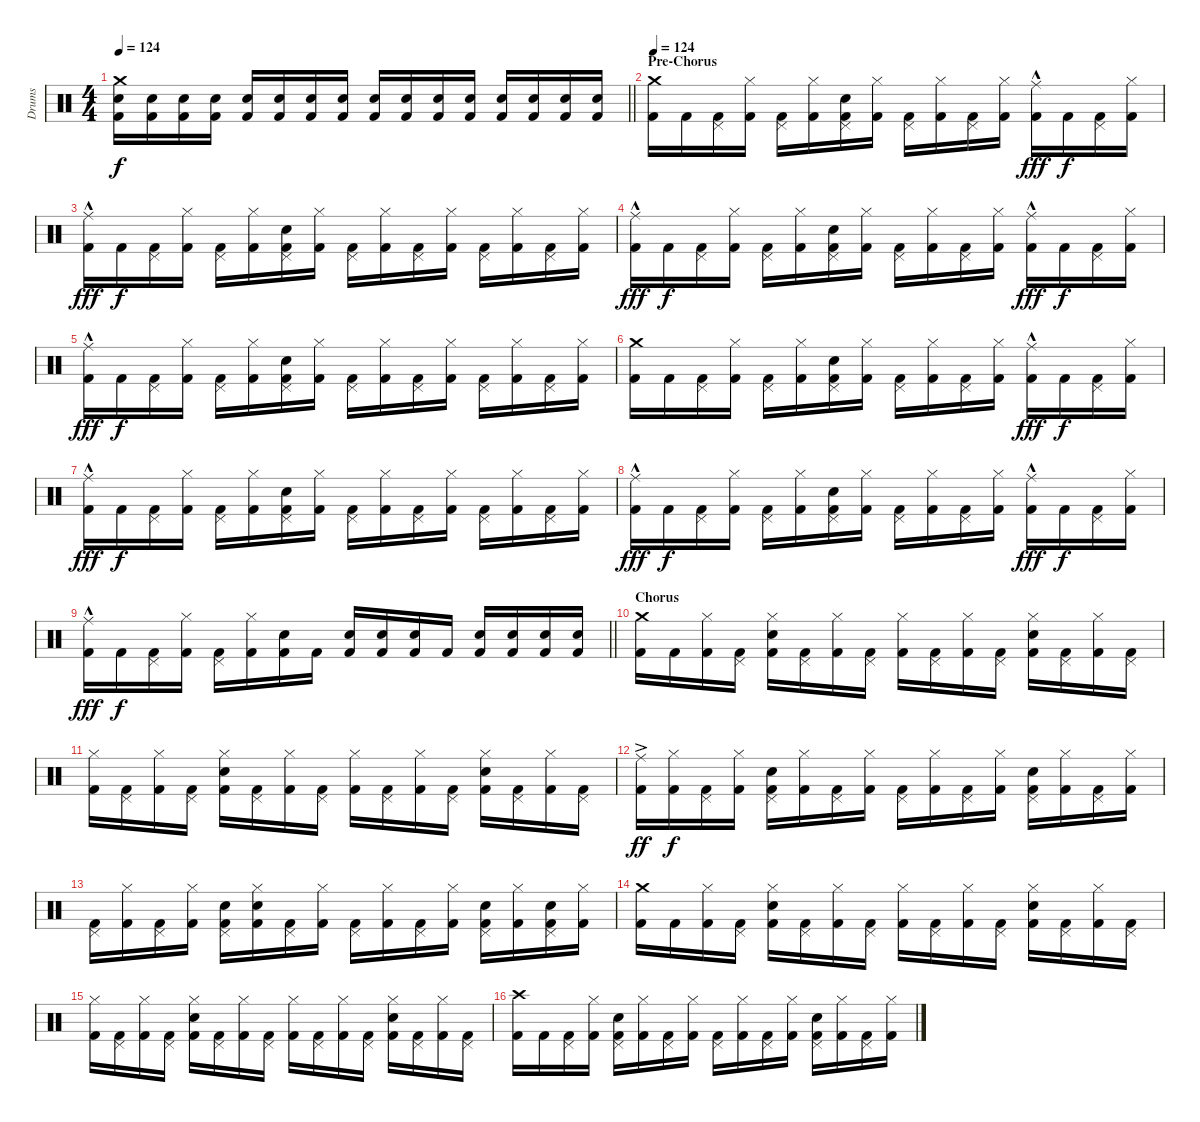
\track ("Drums" "Drums") {instrument percussion}
\staff {score}
\articulation defaults
\ts (4 4)
\tempo 124
\clef neutral
\barLineRight lightlight
\ks c
("Kick (hit) 2" "Snare (hit) 2" "Crash medium (hit)").16{dy f} ("Kick (hit) 2" "Snare (hit) 2").16 ("Kick (hit) 2" "Snare (hit) 2").16 ("Kick (hit) 2" "Snare (hit) 2").16 ("Kick (hit) 2" "Snare (hit) 2").16 ("Kick (hit) 2" "Snare (hit) 2").16 ("Kick (hit) 2" "Snare (hit) 2").16 ("Kick (hit) 2" "Snare (hit) 2").16 ("Kick (hit) 2" "Snare (hit) 2").16 ("Kick (hit) 2" "Snare (hit) 2").16 ("Kick (hit) 2" "Snare (hit) 2").16 ("Kick (hit) 2" "Snare (hit) 2").16 ("Kick (hit) 2" "Snare (hit) 2").16 ("Kick (hit) 2" "Snare (hit) 2").16 ("Kick (hit) 2" "Snare (hit) 2").16 ("Kick (hit) 2" "Snare (hit) 2").16 |
\section ("" "Pre-Chorus")
\tempo 124
("Kick (hit) 2" "Crash medium (hit)").16 "Kick (hit) 2".16 ("Kick (hit) 2" "Pedal Hi-Hat (hit)").16 ("Kick (hit) 2" "Hi-Hat (closed)").16 ("Kick (hit) 2" "Pedal Hi-Hat (hit)").16 ("Kick (hit) 2" "Hi-Hat (closed)").16 ("Kick (hit) 2" "Snare (hit) 2" "Pedal Hi-Hat (hit)").16 ("Kick (hit) 2" "Hi-Hat (closed)").16 ("Kick (hit) 2" "Pedal Hi-Hat (hit)").16 ("Kick (hit) 2" "Hi-Hat (closed)").16 ("Kick (hit) 2" "Pedal Hi-Hat (hit)").16 ("Kick (hit) 2" "Hi-Hat (closed)").16 ("Kick (hit) 2" "Ride (middle)"{hac}).16{dy fff} "Kick (hit) 2".16{dy f} ("Kick (hit) 2" "Pedal Hi-Hat (hit)").16 ("Kick (hit) 2" "Hi-Hat (closed)").16 |
("Kick (hit) 2" "Ride (middle)"{hac}).16{dy fff} "Kick (hit) 2".16{dy f} ("Kick (hit) 2" "Pedal Hi-Hat (hit)").16 ("Kick (hit) 2" "Hi-Hat (closed)").16 ("Kick (hit) 2" "Pedal Hi-Hat (hit)").16 ("Kick (hit) 2" "Hi-Hat (closed)").16 ("Kick (hit) 2" "Snare (hit) 2" "Pedal Hi-Hat (hit)").16 ("Kick (hit) 2" "Hi-Hat (closed)").16 ("Kick (hit) 2" "Pedal Hi-Hat (hit)").16 ("Kick (hit) 2" "Hi-Hat (closed)").16 ("Kick (hit) 2" "Pedal Hi-Hat (hit)").16 ("Kick (hit) 2" "Hi-Hat (closed)").16 ("Kick (hit) 2" "Pedal Hi-Hat (hit)").16 ("Kick (hit) 2" "Hi-Hat (closed)").16 ("Kick (hit) 2" "Pedal Hi-Hat (hit)").16 ("Kick (hit) 2" "Hi-Hat (closed)").16 |
("Kick (hit) 2" "Ride (middle)"{hac}).16{dy fff} "Kick (hit) 2".16{dy f} ("Kick (hit) 2" "Pedal Hi-Hat (hit)").16 ("Kick (hit) 2" "Hi-Hat (closed)").16 ("Kick (hit) 2" "Pedal Hi-Hat (hit)").16 ("Kick (hit) 2" "Hi-Hat (closed)").16 ("Kick (hit) 2" "Snare (hit) 2" "Pedal Hi-Hat (hit)").16 ("Kick (hit) 2" "Hi-Hat (closed)").16 ("Kick (hit) 2" "Pedal Hi-Hat (hit)").16 ("Kick (hit) 2" "Hi-Hat (closed)").16 ("Kick (hit) 2" "Pedal Hi-Hat (hit)").16 ("Kick (hit) 2" "Hi-Hat (closed)").16 ("Kick (hit) 2" "Ride (middle)"{hac}).16{dy fff} "Kick (hit) 2".16{dy f} ("Kick (hit) 2" "Pedal Hi-Hat (hit)").16 ("Kick (hit) 2" "Hi-Hat (closed)").16 |
("Kick (hit) 2" "Ride (middle)"{hac}).16{dy fff} "Kick (hit) 2".16{dy f} ("Kick (hit) 2" "Pedal Hi-Hat (hit)").16 ("Kick (hit) 2" "Hi-Hat (closed)").16 ("Kick (hit) 2" "Pedal Hi-Hat (hit)").16 ("Kick (hit) 2" "Hi-Hat (closed)").16 ("Kick (hit) 2" "Snare (hit) 2" "Pedal Hi-Hat (hit)").16 ("Kick (hit) 2" "Hi-Hat (closed)").16 ("Kick (hit) 2" "Pedal Hi-Hat (hit)").16 ("Kick (hit) 2" "Hi-Hat (closed)").16 ("Kick (hit) 2" "Pedal Hi-Hat (hit)").16 ("Kick (hit) 2" "Hi-Hat (closed)").16 ("Kick (hit) 2" "Pedal Hi-Hat (hit)").16 ("Kick (hit) 2" "Hi-Hat (closed)").16 ("Kick (hit) 2" "Pedal Hi-Hat (hit)").16 ("Kick (hit) 2" "Hi-Hat (closed)").16 |
("Kick (hit) 2" "Crash medium (hit)").16 "Kick (hit) 2".16 ("Kick (hit) 2" "Pedal Hi-Hat (hit)").16 ("Kick (hit) 2" "Hi-Hat (closed)").16 ("Kick (hit) 2" "Pedal Hi-Hat (hit)").16 ("Kick (hit) 2" "Hi-Hat (closed)").16 ("Kick (hit) 2" "Snare (hit) 2" "Pedal Hi-Hat (hit)").16 ("Kick (hit) 2" "Hi-Hat (closed)").16 ("Kick (hit) 2" "Pedal Hi-Hat (hit)").16 ("Kick (hit) 2" "Hi-Hat (closed)").16 ("Kick (hit) 2" "Pedal Hi-Hat (hit)").16 ("Kick (hit) 2" "Hi-Hat (closed)").16 ("Kick (hit) 2" "Ride (middle)"{hac}).16{dy fff} "Kick (hit) 2".16{dy f} ("Kick (hit) 2" "Pedal Hi-Hat (hit)").16 ("Kick (hit) 2" "Hi-Hat (closed)").16 |
("Kick (hit) 2" "Ride (middle)"{hac}).16{dy fff} "Kick (hit) 2".16{dy f} ("Kick (hit) 2" "Pedal Hi-Hat (hit)").16 ("Kick (hit) 2" "Hi-Hat (closed)").16 ("Kick (hit) 2" "Pedal Hi-Hat (hit)").16 ("Kick (hit) 2" "Hi-Hat (closed)").16 ("Kick (hit) 2" "Snare (hit) 2" "Pedal Hi-Hat (hit)").16 ("Kick (hit) 2" "Hi-Hat (closed)").16 ("Kick (hit) 2" "Pedal Hi-Hat (hit)").16 ("Kick (hit) 2" "Hi-Hat (closed)").16 ("Kick (hit) 2" "Pedal Hi-Hat (hit)").16 ("Kick (hit) 2" "Hi-Hat (closed)").16 ("Kick (hit) 2" "Pedal Hi-Hat (hit)").16 ("Kick (hit) 2" "Hi-Hat (closed)").16 ("Kick (hit) 2" "Pedal Hi-Hat (hit)").16 ("Kick (hit) 2" "Hi-Hat (closed)").16 |
("Kick (hit) 2" "Ride (middle)"{hac}).16{dy fff} "Kick (hit) 2".16{dy f} ("Kick (hit) 2" "Pedal Hi-Hat (hit)").16 ("Kick (hit) 2" "Hi-Hat (closed)").16 ("Kick (hit) 2" "Pedal Hi-Hat (hit)").16 ("Kick (hit) 2" "Hi-Hat (closed)").16 ("Kick (hit) 2" "Snare (hit) 2" "Pedal Hi-Hat (hit)").16 ("Kick (hit) 2" "Hi-Hat (closed)").16 ("Kick (hit) 2" "Pedal Hi-Hat (hit)").16 ("Kick (hit) 2" "Hi-Hat (closed)").16 ("Kick (hit) 2" "Pedal Hi-Hat (hit)").16 ("Kick (hit) 2" "Hi-Hat (closed)").16 ("Kick (hit) 2" "Ride (middle)"{hac}).16{dy fff} "Kick (hit) 2".16{dy f} ("Kick (hit) 2" "Pedal Hi-Hat (hit)").16 ("Kick (hit) 2" "Hi-Hat (closed)").16 |
\barLineRight lightlight
("Kick (hit) 2" "Ride (middle)"{hac}).16{dy fff} "Kick (hit) 2".16{dy f} ("Kick (hit) 2" "Pedal Hi-Hat (hit)").16 ("Kick (hit) 2" "Hi-Hat (closed)").16 ("Kick (hit) 2" "Pedal Hi-Hat (hit)").16 ("Kick (hit) 2" "Hi-Hat (closed)").16 ("Kick (hit) 2" "Snare (hit) 2").16 "Kick (hit) 2".16 ("Kick (hit) 2" "Snare (hit) 2").16 ("Kick (hit) 2" "Snare (hit) 2").16 ("Kick (hit) 2" "Snare (hit) 2").16 "Kick (hit) 2".16 ("Kick (hit) 2" "Snare (hit) 2").16 ("Kick (hit) 2" "Snare (hit) 2").16 ("Kick (hit) 2" "Snare (hit) 2").16 ("Kick (hit) 2" "Snare (hit) 2").16 |
\section ("" "Chorus")
("Kick (hit) 2" "Crash medium (hit)").16 "Kick (hit) 2".16 ("Kick (hit) 2" "Hi-Hat (closed)").16 ("Kick (hit) 2" "Pedal Hi-Hat (hit)").16 ("Kick (hit) 2" "Snare (hit) 2" "Hi-Hat (closed)").16 ("Kick (hit) 2" "Pedal Hi-Hat (hit)").16 ("Kick (hit) 2" "Hi-Hat (closed)").16 ("Kick (hit) 2" "Pedal Hi-Hat (hit)").16 ("Kick (hit) 2" "Hi-Hat (closed)").16 ("Kick (hit) 2" "Pedal Hi-Hat (hit)").16 ("Kick (hit) 2" "Hi-Hat (closed)").16 ("Kick (hit) 2" "Pedal Hi-Hat (hit)").16 ("Kick (hit) 2" "Snare (hit) 2" "Hi-Hat (closed)").16 ("Kick (hit) 2" "Pedal Hi-Hat (hit)").16 ("Kick (hit) 2" "Hi-Hat (closed)").16 ("Kick (hit) 2" "Pedal Hi-Hat (hit)").16 |
("Kick (hit) 2" "Hi-Hat (closed)").16 ("Kick (hit) 2" "Pedal Hi-Hat (hit)").16 ("Kick (hit) 2" "Hi-Hat (closed)").16 ("Kick (hit) 2" "Pedal Hi-Hat (hit)").16 ("Kick (hit) 2" "Snare (hit) 2" "Hi-Hat (closed)").16 ("Kick (hit) 2" "Pedal Hi-Hat (hit)").16 ("Kick (hit) 2" "Hi-Hat (closed)").16 ("Kick (hit) 2" "Pedal Hi-Hat (hit)").16 ("Kick (hit) 2" "Hi-Hat (closed)").16 ("Kick (hit) 2" "Pedal Hi-Hat (hit)").16 ("Kick (hit) 2" "Hi-Hat (closed)").16 ("Kick (hit) 2" "Pedal Hi-Hat (hit)").16 ("Kick (hit) 2" "Snare (hit) 2" "Hi-Hat (closed)").16 ("Kick (hit) 2" "Pedal Hi-Hat (hit)").16 ("Kick (hit) 2" "Hi-Hat (closed)").16 ("Kick (hit) 2" "Pedal Hi-Hat (hit)").16 |
("Kick (hit) 2" "Ride (middle)"{ac}).16{dy ff} ("Kick (hit) 2" "Hi-Hat (closed)").16{dy f} ("Kick (hit) 2" "Pedal Hi-Hat (hit)").16 ("Kick (hit) 2" "Hi-Hat (closed)").16 ("Kick (hit) 2" "Snare (hit) 2" "Pedal Hi-Hat (hit)").16 ("Kick (hit) 2" "Hi-Hat (closed)").16 ("Kick (hit) 2" "Pedal Hi-Hat (hit)").16 ("Kick (hit) 2" "Hi-Hat (closed)").16 ("Kick (hit) 2" "Pedal Hi-Hat (hit)").16 ("Kick (hit) 2" "Hi-Hat (closed)").16 ("Kick (hit) 2" "Pedal Hi-Hat (hit)").16 ("Kick (hit) 2" "Hi-Hat (closed)").16 ("Kick (hit) 2" "Snare (hit) 2" "Pedal Hi-Hat (hit)").16 ("Kick (hit) 2" "Hi-Hat (closed)").16 ("Kick (hit) 2" "Pedal Hi-Hat (hit)").16 ("Kick (hit) 2" "Hi-Hat (closed)").16 |
("Kick (hit) 2" "Pedal Hi-Hat (hit)").16 ("Kick (hit) 2" "Hi-Hat (closed)").16 ("Kick (hit) 2" "Pedal Hi-Hat (hit)").16 ("Kick (hit) 2" "Hi-Hat (closed)").16 ("Kick (hit) 2" "Snare (hit) 2" "Pedal Hi-Hat (hit)").16 ("Kick (hit) 2" "Snare (hit) 2" "Hi-Hat (closed)").16 ("Kick (hit) 2" "Pedal Hi-Hat (hit)").16 ("Kick (hit) 2" "Hi-Hat (closed)").16 ("Kick (hit) 2" "Pedal Hi-Hat (hit)").16 ("Kick (hit) 2" "Hi-Hat (closed)").16 ("Kick (hit) 2" "Pedal Hi-Hat (hit)").16 ("Kick (hit) 2" "Hi-Hat (closed)").16 ("Kick (hit) 2" "Snare (hit) 2" "Pedal Hi-Hat (hit)").16 ("Kick (hit) 2" "Hi-Hat (closed)").16 ("Kick (hit) 2" "Snare (hit) 2" "Pedal Hi-Hat (hit)").16 ("Kick (hit) 2" "Hi-Hat (closed)").16 |
("Kick (hit) 2" "Crash medium (hit)").16 "Kick (hit) 2".16 ("Kick (hit) 2" "Hi-Hat (closed)").16 ("Kick (hit) 2" "Pedal Hi-Hat (hit)").16 ("Kick (hit) 2" "Snare (hit) 2" "Hi-Hat (closed)").16 ("Kick (hit) 2" "Pedal Hi-Hat (hit)").16 ("Kick (hit) 2" "Hi-Hat (closed)").16 ("Kick (hit) 2" "Pedal Hi-Hat (hit)").16 ("Kick (hit) 2" "Hi-Hat (closed)").16 ("Kick (hit) 2" "Pedal Hi-Hat (hit)").16 ("Kick (hit) 2" "Hi-Hat (closed)").16 ("Kick (hit) 2" "Pedal Hi-Hat (hit)").16 ("Kick (hit) 2" "Snare (hit) 2" "Hi-Hat (closed)").16 ("Kick (hit) 2" "Pedal Hi-Hat (hit)").16 ("Kick (hit) 2" "Hi-Hat (closed)").16 ("Kick (hit) 2" "Pedal Hi-Hat (hit)").16 |
("Kick (hit) 2" "Hi-Hat (closed)").16 ("Kick (hit) 2" "Pedal Hi-Hat (hit)").16 ("Kick (hit) 2" "Hi-Hat (closed)").16 ("Kick (hit) 2" "Pedal Hi-Hat (hit)").16 ("Kick (hit) 2" "Snare (hit) 2" "Hi-Hat (closed)").16 ("Kick (hit) 2" "Pedal Hi-Hat (hit)").16 ("Kick (hit) 2" "Hi-Hat (closed)").16 ("Kick (hit) 2" "Pedal Hi-Hat (hit)").16 ("Kick (hit) 2" "Hi-Hat (closed)").16 ("Kick (hit) 2" "Pedal Hi-Hat (hit)").16 ("Kick (hit) 2" "Hi-Hat (closed)").16 ("Kick (hit) 2" "Pedal Hi-Hat (hit)").16 ("Kick (hit) 2" "Snare (hit) 2" "Hi-Hat (closed)").16 ("Kick (hit) 2" "Pedal Hi-Hat (hit)").16 ("Kick (hit) 2" "Hi-Hat (closed)").16 ("Kick (hit) 2" "Pedal Hi-Hat (hit)").16 |
("Kick (hit) 2" "Crash high (hit)").16 "Kick (hit) 2".16 ("Kick (hit) 2" "Pedal Hi-Hat (hit)").16 ("Kick (hit) 2" "Hi-Hat (closed)").16 ("Kick (hit) 2" "Snare (hit) 2" "Pedal Hi-Hat (hit)").16 ("Kick (hit) 2" "Hi-Hat (closed)").16 ("Kick (hit) 2" "Pedal Hi-Hat (hit)").16 ("Kick (hit) 2" "Hi-Hat (closed)").16 ("Kick (hit) 2" "Pedal Hi-Hat (hit)").16 ("Kick (hit) 2" "Hi-Hat (closed)").16 ("Kick (hit) 2" "Pedal Hi-Hat (hit)").16 ("Kick (hit) 2" "Hi-Hat (closed)").16 ("Kick (hit) 2" "Snare (hit) 2" "Pedal Hi-Hat (hit)").16 ("Kick (hit) 2" "Hi-Hat (closed)").16 ("Kick (hit) 2" "Pedal Hi-Hat (hit)").16 ("Kick (hit) 2" "Hi-Hat (closed)").16
